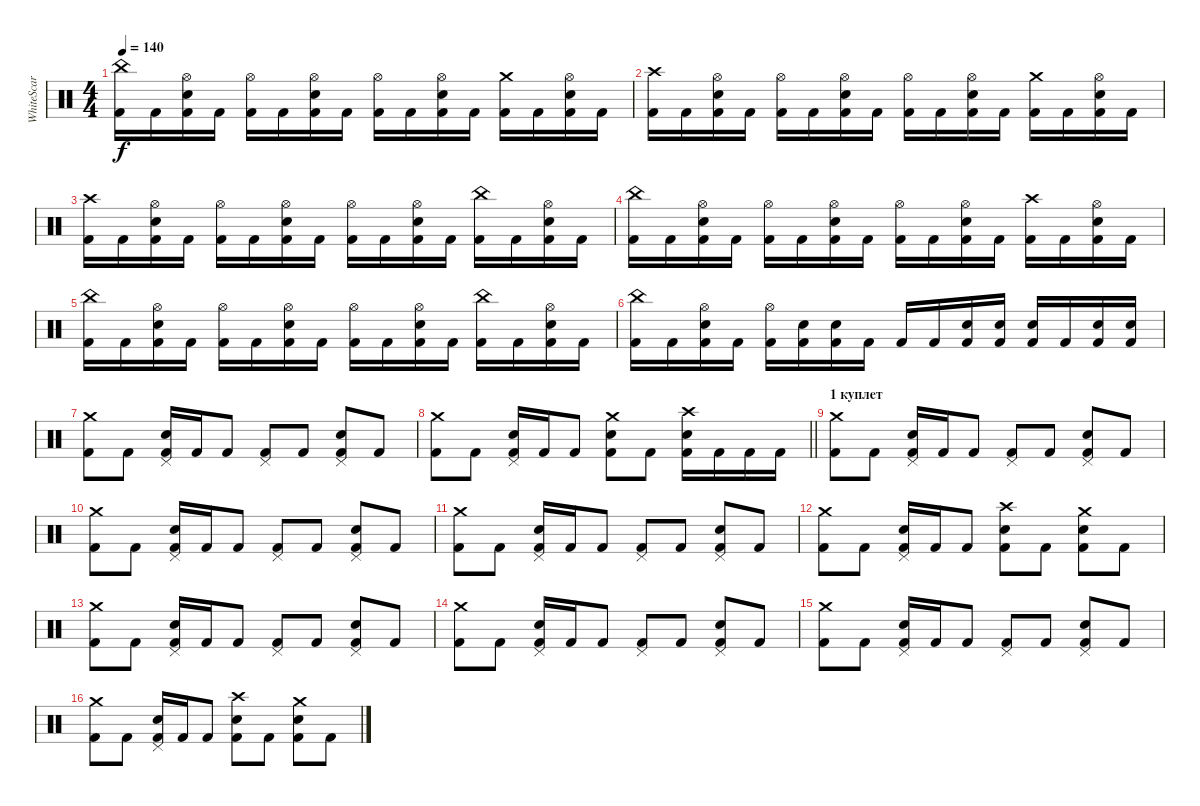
\track ("WhiteScar " "WhiteScar ") {instrument percussion}
\staff {score}
\articulation defaults
\ts (4 4)
\tempo 140
\clef neutral
\ks c
("China (hit)" "Kick (hit) 2").16{dy f} "Kick (hit) 2".16 ("Hi-Hat (open)" "Snare (hit) 2" "Kick (hit) 2").16 "Kick (hit) 2".16 ("Hi-Hat (open)" "Kick (hit) 2").16 "Kick (hit) 2".16 ("Hi-Hat (open)" "Snare (hit) 2" "Kick (hit) 2").16 "Kick (hit) 2".16 ("Hi-Hat (open)" "Kick (hit) 2").16 "Kick (hit) 2".16 ("Hi-Hat (open)" "Snare (hit) 2" "Kick (hit) 2").16 "Kick (hit) 2".16 ("Crash medium (hit)" "Kick (hit) 2").16 "Kick (hit) 2".16 ("Hi-Hat (open)" "Snare (hit) 2" "Kick (hit) 2").16 "Kick (hit) 2".16 |
("Crash high (hit)" "Kick (hit) 2").16 "Kick (hit) 2".16 ("Hi-Hat (open)" "Snare (hit) 2" "Kick (hit) 2").16 "Kick (hit) 2".16 ("Hi-Hat (open)" "Kick (hit) 2").16 "Kick (hit) 2".16 ("Hi-Hat (open)" "Snare (hit) 2" "Kick (hit) 2").16 "Kick (hit) 2".16 ("Hi-Hat (open)" "Kick (hit) 2").16 "Kick (hit) 2".16 ("Hi-Hat (open)" "Snare (hit) 2" "Kick (hit) 2").16 "Kick (hit) 2".16 ("Crash medium (hit)" "Kick (hit) 2").16 "Kick (hit) 2".16 ("Hi-Hat (open)" "Snare (hit) 2" "Kick (hit) 2").16 "Kick (hit) 2".16 |
("Crash high (hit)" "Kick (hit) 2").16 "Kick (hit) 2".16 ("Hi-Hat (open)" "Snare (hit) 2" "Kick (hit) 2").16 "Kick (hit) 2".16 ("Hi-Hat (open)" "Kick (hit) 2").16 "Kick (hit) 2".16 ("Hi-Hat (open)" "Snare (hit) 2" "Kick (hit) 2").16 "Kick (hit) 2".16 ("Hi-Hat (open)" "Kick (hit) 2").16 "Kick (hit) 2".16 ("Hi-Hat (open)" "Snare (hit) 2" "Kick (hit) 2").16 "Kick (hit) 2".16 ("China (hit)" "Kick (hit) 2").16 "Kick (hit) 2".16 ("Hi-Hat (open)" "Snare (hit) 2" "Kick (hit) 2").16 "Kick (hit) 2".16 |
("China (hit)" "Kick (hit) 2").16 "Kick (hit) 2".16 ("Hi-Hat (open)" "Snare (hit) 2" "Kick (hit) 2").16 "Kick (hit) 2".16 ("Hi-Hat (open)" "Kick (hit) 2").16 "Kick (hit) 2".16 ("Hi-Hat (open)" "Snare (hit) 2" "Kick (hit) 2").16 "Kick (hit) 2".16 ("Hi-Hat (open)" "Kick (hit) 2").16 "Kick (hit) 2".16 ("Hi-Hat (open)" "Snare (hit) 2" "Kick (hit) 2").16 "Kick (hit) 2".16 ("Crash high (hit)" "Kick (hit) 2").16 "Kick (hit) 2".16 ("Hi-Hat (open)" "Snare (hit) 2" "Kick (hit) 2").16 "Kick (hit) 2".16 |
("China (hit)" "Kick (hit) 2").16 "Kick (hit) 2".16 ("Hi-Hat (open)" "Snare (hit) 2" "Kick (hit) 2").16 "Kick (hit) 2".16 ("Hi-Hat (open)" "Kick (hit) 2").16 "Kick (hit) 2".16 ("Hi-Hat (open)" "Snare (hit) 2" "Kick (hit) 2").16 "Kick (hit) 2".16 ("Hi-Hat (open)" "Kick (hit) 2").16 "Kick (hit) 2".16 ("Hi-Hat (open)" "Snare (hit) 2" "Kick (hit) 2").16 "Kick (hit) 2".16 ("China (hit)" "Kick (hit) 2").16 "Kick (hit) 2".16 ("Hi-Hat (open)" "Snare (hit) 2" "Kick (hit) 2").16 "Kick (hit) 2".16 |
("China (hit)" "Kick (hit) 2").16 "Kick (hit) 2".16 ("Hi-Hat (open)" "Snare (hit) 2" "Kick (hit) 2").16 "Kick (hit) 2".16 ("Hi-Hat (open)" "Kick (hit) 2").16 ("Snare (hit) 2" "Kick (hit) 2").16 ("Snare (hit) 2" "Kick (hit) 2").16 "Kick (hit) 2".16 "Kick (hit) 2".16 "Kick (hit) 2".16 ("Snare (hit) 2" "Kick (hit) 2").16 ("Snare (hit) 2" "Kick (hit) 2").16 ("Snare (hit) 2" "Kick (hit) 2").16 "Kick (hit) 2".16 ("Snare (hit) 2" "Kick (hit) 2").16 ("Snare (hit) 2" "Kick (hit) 2").16 |
("Crash medium (hit)" "Kick (hit) 2").8 "Kick (hit) 2".8 ("Pedal Hi-Hat (hit)" "Snare (hit) 2" "Kick (hit) 2").16 "Kick (hit) 2".16 "Kick (hit) 2".8 ("Pedal Hi-Hat (hit)" "Kick (hit) 2").8 "Kick (hit) 2".8 ("Pedal Hi-Hat (hit)" "Snare (hit) 2" "Kick (hit) 2").8 "Kick (hit) 2".8 |
\barLineRight lightlight
("Crash medium (hit)" "Kick (hit) 2").8 "Kick (hit) 2".8 ("Pedal Hi-Hat (hit)" "Snare (hit) 2" "Kick (hit) 2").16 "Kick (hit) 2".16 "Kick (hit) 2".8 ("Crash medium (hit)" "Snare (hit) 2" "Kick (hit) 2").8 "Kick (hit) 2".8 ("Crash high (hit)" "Snare (hit) 2" "Kick (hit) 2").16 "Kick (hit) 2".16 "Kick (hit) 2".16 "Kick (hit) 2".16 |
\section ("" "1 куплет")
("Crash medium (hit)" "Kick (hit) 2").8 "Kick (hit) 2".8 ("Pedal Hi-Hat (hit)" "Snare (hit) 2" "Kick (hit) 2").16 "Kick (hit) 2".16 "Kick (hit) 2".8 ("Pedal Hi-Hat (hit)" "Kick (hit) 2").8 "Kick (hit) 2".8 ("Pedal Hi-Hat (hit)" "Snare (hit) 2" "Kick (hit) 2").8 "Kick (hit) 2".8 |
("Crash medium (hit)" "Kick (hit) 2").8 "Kick (hit) 2".8 ("Pedal Hi-Hat (hit)" "Snare (hit) 2" "Kick (hit) 2").16 "Kick (hit) 2".16 "Kick (hit) 2".8 ("Pedal Hi-Hat (hit)" "Kick (hit) 2").8 "Kick (hit) 2".8 ("Pedal Hi-Hat (hit)" "Snare (hit) 2" "Kick (hit) 2").8 "Kick (hit) 2".8 |
("Crash medium (hit)" "Kick (hit) 2").8 "Kick (hit) 2".8 ("Pedal Hi-Hat (hit)" "Snare (hit) 2" "Kick (hit) 2").16 "Kick (hit) 2".16 "Kick (hit) 2".8 ("Pedal Hi-Hat (hit)" "Kick (hit) 2").8 "Kick (hit) 2".8 ("Pedal Hi-Hat (hit)" "Snare (hit) 2" "Kick (hit) 2").8 "Kick (hit) 2".8 |
("Crash medium (hit)" "Kick (hit) 2").8 "Kick (hit) 2".8 ("Pedal Hi-Hat (hit)" "Snare (hit) 2" "Kick (hit) 2").16 "Kick (hit) 2".16 "Kick (hit) 2".8 ("Crash high (hit)" "Snare (hit) 2" "Kick (hit) 2").8 "Kick (hit) 2".8 ("Crash medium (hit)" "Snare (hit) 2" "Kick (hit) 2").8 "Kick (hit) 2".8 |
("Crash medium (hit)" "Kick (hit) 2").8 "Kick (hit) 2".8 ("Pedal Hi-Hat (hit)" "Snare (hit) 2" "Kick (hit) 2").16 "Kick (hit) 2".16 "Kick (hit) 2".8 ("Pedal Hi-Hat (hit)" "Kick (hit) 2").8 "Kick (hit) 2".8 ("Pedal Hi-Hat (hit)" "Snare (hit) 2" "Kick (hit) 2").8 "Kick (hit) 2".8 |
("Crash medium (hit)" "Kick (hit) 2").8 "Kick (hit) 2".8 ("Pedal Hi-Hat (hit)" "Snare (hit) 2" "Kick (hit) 2").16 "Kick (hit) 2".16 "Kick (hit) 2".8 ("Pedal Hi-Hat (hit)" "Kick (hit) 2").8 "Kick (hit) 2".8 ("Pedal Hi-Hat (hit)" "Snare (hit) 2" "Kick (hit) 2").8 "Kick (hit) 2".8 |
("Crash medium (hit)" "Kick (hit) 2").8 "Kick (hit) 2".8 ("Pedal Hi-Hat (hit)" "Snare (hit) 2" "Kick (hit) 2").16 "Kick (hit) 2".16 "Kick (hit) 2".8 ("Pedal Hi-Hat (hit)" "Kick (hit) 2").8 "Kick (hit) 2".8 ("Pedal Hi-Hat (hit)" "Snare (hit) 2" "Kick (hit) 2").8 "Kick (hit) 2".8 |
("Crash medium (hit)" "Kick (hit) 2").8 "Kick (hit) 2".8 ("Pedal Hi-Hat (hit)" "Snare (hit) 2" "Kick (hit) 2").16 "Kick (hit) 2".16 "Kick (hit) 2".8 ("Crash high (hit)" "Snare (hit) 2" "Kick (hit) 2").8 "Kick (hit) 2".8 ("Crash medium (hit)" "Snare (hit) 2" "Kick (hit) 2").8 "Kick (hit) 2".8
